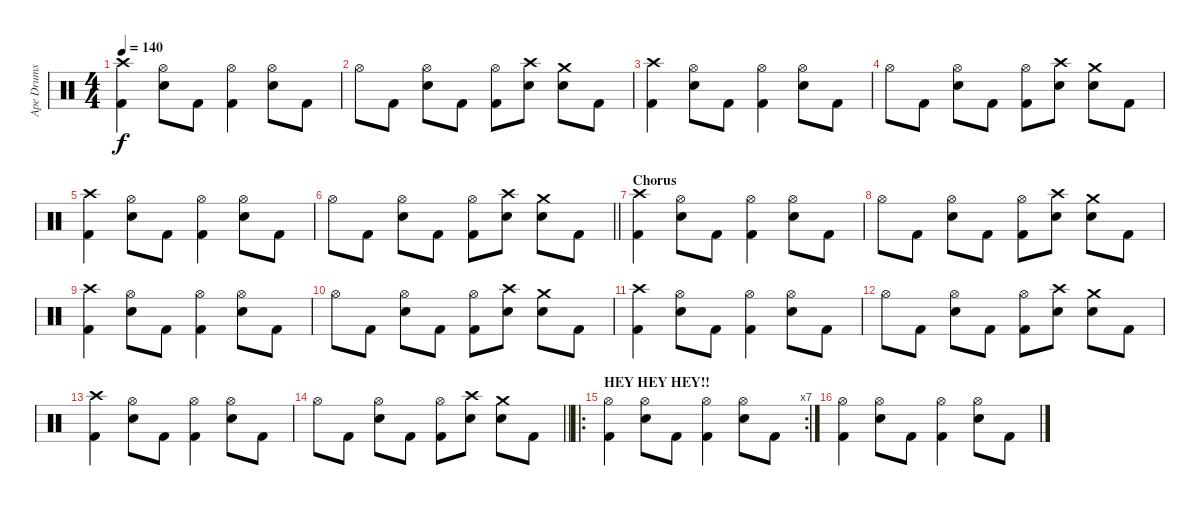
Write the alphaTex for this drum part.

\track ("Ape Drums" "Ape Drums") {instrument percussion}
\staff {score}
\articulation defaults
\ts (4 4)
\tempo 140
\clef neutral
\ks c
("Crash high (hit)" "Kick (hit) 2").4{dy f} ("Hi-Hat (open)" "Snare (hit) 2").8 "Kick (hit) 2".8 ("Hi-Hat (open)" "Kick (hit) 2").4 ("Hi-Hat (open)" "Snare (hit) 2").8 "Kick (hit) 2".8 |
"Hi-Hat (open)".8 "Kick (hit) 2".8 ("Hi-Hat (open)" "Snare (hit) 2").8 "Kick (hit) 2".8 ("Hi-Hat (open)" "Kick (hit) 2").8 ("Crash high (hit)" "Snare (hit) 2").8 ("Crash medium (hit)" "Snare (hit) 2").8 "Kick (hit) 2".8 |
("Crash high (hit)" "Kick (hit) 2").4 ("Hi-Hat (open)" "Snare (hit) 2").8 "Kick (hit) 2".8 ("Hi-Hat (open)" "Kick (hit) 2").4 ("Hi-Hat (open)" "Snare (hit) 2").8 "Kick (hit) 2".8 |
"Hi-Hat (open)".8 "Kick (hit) 2".8 ("Hi-Hat (open)" "Snare (hit) 2").8 "Kick (hit) 2".8 ("Hi-Hat (open)" "Kick (hit) 2").8 ("Crash high (hit)" "Snare (hit) 2").8 ("Crash medium (hit)" "Snare (hit) 2").8 "Kick (hit) 2".8 |
("Crash high (hit)" "Kick (hit) 2").4 ("Hi-Hat (open)" "Snare (hit) 2").8 "Kick (hit) 2".8 ("Hi-Hat (open)" "Kick (hit) 2").4 ("Hi-Hat (open)" "Snare (hit) 2").8 "Kick (hit) 2".8 |
\barLineRight lightlight "Hi-Hat (open)".8 "Kick (hit) 2".8
("Hi-Hat (open)" "Snare (hit) 2").8 "Kick (hit) 2".8 ("Hi-Hat (open)" "Kick (hit) 2").8 ("Crash high (hit)" "Snare (hit) 2").8 ("Crash medium (hit)" "Snare (hit) 2").8 "Kick (hit) 2".8 |
\section ("" "Chorus")
("Crash high (hit)" "Kick (hit) 2").4 ("Hi-Hat (open)" "Snare (hit) 2").8 "Kick (hit) 2".8 ("Hi-Hat (open)" "Kick (hit) 2").4 ("Hi-Hat (open)" "Snare (hit) 2").8 "Kick (hit) 2".8 |
"Hi-Hat (open)".8 "Kick (hit) 2".8 ("Hi-Hat (open)" "Snare (hit) 2").8 "Kick (hit) 2".8 ("Hi-Hat (open)" "Kick (hit) 2").8 ("Crash high (hit)" "Snare (hit) 2").8 ("Crash medium (hit)" "Snare (hit) 2").8 "Kick (hit) 2".8 |
("Crash high (hit)" "Kick (hit) 2").4 ("Hi-Hat (open)" "Snare (hit) 2").8 "Kick (hit) 2".8 ("Hi-Hat (open)" "Kick (hit) 2").4 ("Hi-Hat (open)" "Snare (hit) 2").8 "Kick (hit) 2".8 |
"Hi-Hat (open)".8 "Kick (hit) 2".8 ("Hi-Hat (open)" "Snare (hit) 2").8 "Kick (hit) 2".8 ("Hi-Hat (open)" "Kick (hit) 2").8 ("Crash high (hit)" "Snare (hit) 2").8 ("Crash medium (hit)" "Snare (hit) 2").8 "Kick (hit) 2".8 |
("Crash high (hit)" "Kick (hit) 2").4 ("Hi-Hat (open)" "Snare (hit) 2").8 "Kick (hit) 2".8 ("Hi-Hat (open)" "Kick (hit) 2").4 ("Hi-Hat (open)" "Snare (hit) 2").8 "Kick (hit) 2".8 |
"Hi-Hat (open)".8 "Kick (hit) 2".8 ("Hi-Hat (open)" "Snare (hit) 2").8 "Kick (hit) 2".8 ("Hi-Hat (open)" "Kick (hit) 2").8 ("Crash high (hit)" "Snare (hit) 2").8 ("Crash medium (hit)" "Snare (hit) 2").8 "Kick (hit) 2".8 |
("Crash high (hit)" "Kick (hit) 2").4 ("Hi-Hat (open)" "Snare (hit) 2").8 "Kick (hit) 2".8 ("Hi-Hat (open)" "Kick (hit) 2").4 ("Hi-Hat (open)" "Snare (hit) 2").8 "Kick (hit) 2".8 |
\barLineRight lightlight "Hi-Hat (open)".8 "Kick (hit) 2".8
("Hi-Hat (open)" "Snare (hit) 2").8 "Kick (hit) 2".8 ("Hi-Hat (open)" "Kick (hit) 2").8 ("Crash high (hit)" "Snare (hit) 2").8 ("Crash medium (hit)" "Snare (hit) 2").8 "Kick (hit) 2".8 |
\ro
\rc 7
\section ("" "HEY HEY HEY!!")
("Hi-Hat (open)" "Kick (hit) 2").4 ("Hi-Hat (open)" "Snare (hit) 2").8 "Kick (hit) 2".8 ("Hi-Hat (open)" "Kick (hit) 2").4 ("Hi-Hat (open)" "Snare (hit) 2").8 "Kick (hit) 2".8 |
("Hi-Hat (open)" "Kick (hit) 2").4 ("Hi-Hat (open)" "Snare (hit) 2").8 "Kick (hit) 2".8 ("Hi-Hat (open)" "Kick (hit) 2").4 ("Hi-Hat (open)" "Snare (hit) 2").8 "Kick (hit) 2".8
